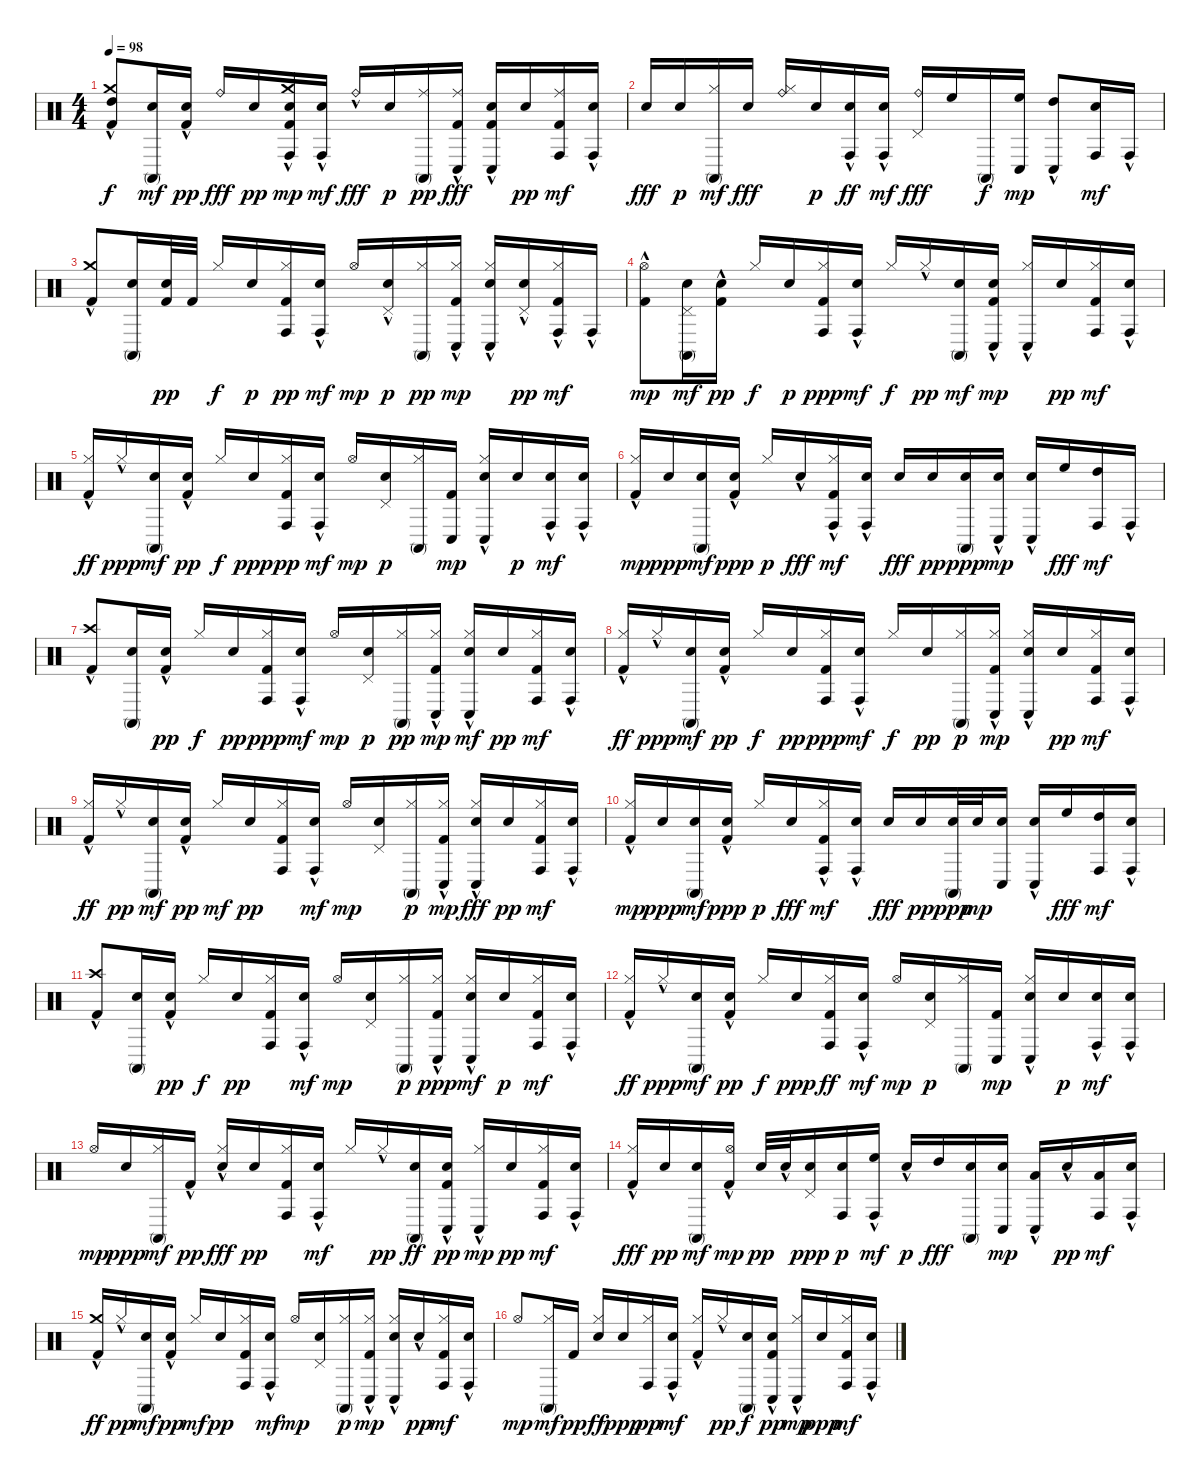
\track "" {instrument percussion}
\staff {score}
\articulation defaults
\ts (4 4)
\tempo 98
\clef neutral
\ks c
("Kick (hit) 2"{hac} "High Tom (hit)" "Crash medium (hit)"{hac}).8{dy f} ("Electric Snare (hit)" "Conga high (mute)").16{dy mf} ("Kick (hit) 2"{hac} "Snare (hit) 2").16{dy pp} "Ride (bell)".16{dy fff} "Snare (hit) 2".16{dy pp} ("Snare (hit) 2"{hac} "Kick (hit) 2" "Conga high (hit)" "Crash medium (hit)").16{dy mp} ("Electric Snare (hit)" "Conga high (hit)"{hac}).16{dy mf} "Ride (bell)"{hac}.16{dy fff} "Snare (hit) 2".16{dy p} ("Ride (middle)" "Conga high (mute)").16{dy pp} ("Conga low (hit)" "Kick (hit) 2" "Ride (middle)"{hac}).16{dy fff} ("Conga low (hit)"{hac} "Kick (hit) 2" "Electric Snare (hit)"{hac}).16 "Snare (hit) 2".16{dy pp} ("Kick (hit) 2" "Ride (middle)" "Conga high (hit)").16{dy mf} ("Snare (hit) 2" "Conga high (hit)"{hac}).16 |
"Snare (hit) 2".16{dy fff} "Snare (hit) 2".16{dy p} ("Hi-Hat (closed)" "Conga high (mute)").16{dy mf} "Electric Snare (hit)".16{dy fff} ("Hi-Hat (closed)" "Ride (bell)").16 "Snare (hit) 2".16{dy p} ("Snare (hit) 2"{hac} "Conga high (hit)").16{dy ff} ("Electric Snare (hit)"{hac} "Conga high (hit)"{hac}).16{dy mf} ("Pedal Hi-Hat (hit)" "Ride (bell)").16{dy fff} "High Floor Tom (hit)".16 "Conga high (mute)".16{dy f} ("High Floor Tom (hit)" "Conga low (hit)").16{dy mp} ("High Tom (hit)" "Conga low (hit)"{hac}).8 ("Electric Snare (hit)" "Conga high (hit)").16{dy mf} "Conga high (hit)"{hac}.16 |
("Kick (hit) 2"{hac} "Crash medium (hit)").8 ("Electric Snare (hit)" "Conga high (mute)").16 ("Kick (hit) 2" "Snare (hit) 2").32{dy pp} "Kick (hit) 2".32 "Hi-Hat (closed)".16{dy f} "Snare (hit) 2".16{dy p} ("Kick (hit) 2" "Hi-Hat (closed)" "Conga high (hit)").16{dy pp} ("Electric Snare (hit)" "Conga high (hit)"{hac}).16{dy mf} "Hi-Hat (open)".16{dy mp} ("Snare (hit) 2"{hac} "Pedal Hi-Hat (hit)").16{dy p} ("Hi-Hat (closed)" "Conga high (mute)").16{dy pp} ("Kick (hit) 2"{hac} "Hi-Hat (closed)" "Conga low (hit)").16{dy mp} ("Snare (hit) 2" "Hi-Hat (closed)" "Conga low (hit)"{hac}).16 ("Snare (hit) 2"{hac} "Pedal Hi-Hat (hit)").16{dy pp} ("Kick (hit) 2" "Hi-Hat (closed)"{hac} "Conga high (hit)").16{dy mf} "Conga high (hit)"{hac}.16 |
("Kick (hit) 2"{hac} "Hi-Hat (open)").8{dy mp} ("Electric Snare (hit)" "Pedal Hi-Hat (hit)" "Conga high (mute)").16{dy mf} ("Kick (hit) 2"{hac} "Snare (hit) 2").16{dy pp} "Hi-Hat (closed)".16{dy f} "Snare (hit) 2".16{dy p} ("Kick (hit) 2" "Hi-Hat (closed)" "Conga high (hit)").16{dy ppp} ("Snare (hit) 2" "Conga high (hit)"{hac}).16{dy mf} "Hi-Hat (closed)".16{dy f} "Hi-Hat (closed)"{hac}.16{dy pp} ("Electric Snare (hit)" "Conga high (mute)").16{dy mf} ("Kick (hit) 2"{hac} "Snare (hit) 2" "Conga low (hit)").16{dy mp} ("Hi-Hat (closed)" "Conga low (hit)"{hac}).16 "Snare (hit) 2".16{dy pp} ("Kick (hit) 2" "Hi-Hat (closed)" "Conga high (hit)").16{dy mf} ("Snare (hit) 2" "Conga high (hit)"{hac}).16 |
("Kick (hit) 2"{hac} "Hi-Hat (closed)").16{dy ff} "Hi-Hat (closed)"{hac}.16{dy ppp} ("Electric Snare (hit)" "Conga high (mute)").16{dy mf} ("Kick (hit) 2"{hac} "Snare (hit) 2").16{dy pp} "Hi-Hat (closed)".16{dy f} "Snare (hit) 2".16{dy ppp} ("Conga high (hit)" "Kick (hit) 2" "Hi-Hat (closed)").16{dy pp} ("Electric Snare (hit)" "Conga high (hit)"{hac}).16{dy mf} "Hi-Hat (open)".16{dy mp} ("Snare (hit) 2" "Pedal Hi-Hat (hit)").16{dy p} ("Hi-Hat (closed)" "Conga high (mute)").16 ("Kick (hit) 2" "Conga low (hit)").16{dy mp} ("Electric Snare (hit)"{hac} "Hi-Hat (closed)" "Conga low (hit)"{hac}).16 "Snare (hit) 2".16{dy p} ("Snare (hit) 2"{hac} "Conga high (hit)").16{dy mf} ("Electric Snare (hit)"{hac} "Conga high (hit)"{hac}).16 |
("Kick (hit) 2"{hac} "Hi-Hat (closed)").16{dy mp} "Snare (hit) 2".16{dy ppp} ("Snare (hit) 2" "Conga high (mute)").16{dy mf} ("Kick (hit) 2"{hac} "Snare (hit) 2").16{dy ppp} "Hi-Hat (closed)".16{dy p} "Electric Snare (hit)"{hac}.16{dy fff} ("Kick (hit) 2" "Hi-Hat (closed)"{hac} "Conga high (hit)").16{dy mf} ("Snare (hit) 2" "Conga high (hit)"{hac}).16 "Snare (hit) 2".16{dy fff} "Snare (hit) 2".16{dy pp} ("Snare (hit) 2" "Conga high (mute)").16{dy ppp} ("Electric Snare (hit)"{hac} "Conga low (hit)").16{dy mp} ("Snare (hit) 2"{hac} "Conga low (hit)"{hac}).16 "High Floor Tom (hit)".16{dy fff} ("High Tom (hit)" "Conga high (hit)").16{dy mf} "Conga high (hit)"{hac}.16 |
("Kick (hit) 2"{hac} "Crash high (hit)").8 ("Electric Snare (hit)" "Conga high (mute)").16 ("Kick (hit) 2"{hac} "Snare (hit) 2").16{dy pp} "Hi-Hat (closed)".16{dy f} "Snare (hit) 2".16{dy pp} ("Kick (hit) 2" "Hi-Hat (closed)" "Conga high (hit)").16{dy ppp} ("Electric Snare (hit)" "Conga high (hit)"{hac}).16{dy mf} "Hi-Hat (open)".16{dy mp} ("Snare (hit) 2" "Pedal Hi-Hat (hit)").16{dy p} ("Hi-Hat (closed)" "Conga high (mute)").16{dy pp} ("Kick (hit) 2"{hac} "Hi-Hat (closed)" "Conga low (hit)").16{dy mp} ("Conga low (hit)"{hac} "Electric Snare (hit)" "Hi-Hat (closed)").16{dy mf} "Snare (hit) 2".16{dy pp} ("Kick (hit) 2" "Hi-Hat (closed)" "Conga high (hit)").16{dy mf} ("Snare (hit) 2"{hac} "Conga high (hit)"{hac}).16 |
("Kick (hit) 2"{hac} "Hi-Hat (closed)").16{dy ff} "Hi-Hat (closed)"{hac}.16{dy ppp} ("Snare (hit) 2" "Conga high (mute)").16{dy mf} ("Kick (hit) 2"{hac} "Snare (hit) 2").16{dy pp} "Hi-Hat (closed)".16{dy f} "Snare (hit) 2".16{dy pp} ("Kick (hit) 2" "Hi-Hat (closed)" "Conga high (hit)").16{dy ppp} ("Snare (hit) 2" "Conga high (hit)"{hac}).16{dy mf} "Hi-Hat (closed)".16{dy f} "Snare (hit) 2".16{dy pp} ("Hi-Hat (closed)" "Conga high (mute)").16{dy p} ("Kick (hit) 2"{hac} "Hi-Hat (closed)" "Conga low (hit)").16{dy mp} ("Electric Snare (hit)"{hac} "Hi-Hat (closed)" "Conga low (hit)"{hac}).16 "Snare (hit) 2".16{dy pp} ("Kick (hit) 2" "Hi-Hat (closed)" "Conga high (hit)").16{dy mf} ("Snare (hit) 2" "Conga high (hit)"{hac}).16 |
("Kick (hit) 2"{hac} "Hi-Hat (closed)").16{dy ff} "Hi-Hat (closed)"{hac}.16{dy pp} ("Electric Snare (hit)" "Conga high (mute)").16{dy mf} ("Kick (hit) 2"{hac} "Snare (hit) 2").16{dy pp} "Hi-Hat (closed)".16{dy mf} "Snare (hit) 2".16{dy pp} ("Kick (hit) 2" "Hi-Hat (closed)" "Conga high (hit)").16 ("Electric Snare (hit)" "Conga high (hit)"{hac}).16{dy mf} "Hi-Hat (open)".16{dy mp} ("Snare (hit) 2" "Pedal Hi-Hat (hit)").16 ("Hi-Hat (closed)" "Conga high (mute)").16{dy p} ("Kick (hit) 2"{hac} "Hi-Hat (closed)" "Conga low (hit)").16{dy mp} ("Hi-Hat (closed)" "Conga low (hit)"{hac} "Electric Snare (hit)"{hac}).16{dy fff} "Snare (hit) 2".16{dy pp} ("Kick (hit) 2" "Hi-Hat (closed)" "Conga high (hit)").16{dy mf} ("Electric Snare (hit)"{hac} "Conga high (hit)"{hac}).16 |
("Kick (hit) 2"{hac} "Hi-Hat (closed)").16{dy mp} "Snare (hit) 2".16{dy ppp} ("Snare (hit) 2" "Conga high (mute)").16{dy mf} ("Kick (hit) 2"{hac} "Snare (hit) 2").16{dy ppp} "Hi-Hat (closed)".16{dy p} "Electric Snare (hit)".16{dy fff} ("Kick (hit) 2" "Hi-Hat (closed)"{hac} "Conga high (hit)").16{dy mf} ("Snare (hit) 2" "Conga high (hit)"{hac}).16 "Snare (hit) 2".16{dy fff} "Snare (hit) 2".16{dy pp} ("Snare (hit) 2" "Conga high (mute)").32{dy ppp} "Electric Snare (hit)".32{dy mp} ("Electric Snare (hit)" "Conga low (hit)").16 ("Snare (hit) 2"{hac} "Conga low (hit)"{hac}).16 "High Floor Tom (hit)".16{dy fff} ("High Tom (hit)" "Conga high (hit)").16{dy mf} ("Electric Snare (hit)"{hac} "Conga high (hit)"{hac}).16 |
("Kick (hit) 2"{hac} "Crash high (hit)").8 ("Electric Snare (hit)" "Conga high (mute)").16 ("Kick (hit) 2"{hac} "Snare (hit) 2").16{dy pp} "Hi-Hat (closed)".16{dy f} "Snare (hit) 2".16{dy pp} ("Kick (hit) 2" "Hi-Hat (closed)" "Conga high (hit)").16 ("Electric Snare (hit)" "Conga high (hit)"{hac}).16{dy mf} "Hi-Hat (open)".16{dy mp} ("Snare (hit) 2" "Pedal Hi-Hat (hit)").16 ("Hi-Hat (closed)" "Conga high (mute)").16{dy p} ("Conga low (hit)" "Kick (hit) 2"{hac} "Hi-Hat (closed)").16{dy ppp} ("Conga low (hit)"{hac} "Electric Snare (hit)"{hac} "Hi-Hat (closed)").16{dy mf} "Snare (hit) 2".16{dy p} ("Kick (hit) 2" "Hi-Hat (closed)" "Conga high (hit)").16{dy mf} ("Snare (hit) 2" "Conga high (hit)"{hac}).16 |
("Kick (hit) 2"{hac} "Hi-Hat (closed)").16{dy ff} "Hi-Hat (closed)"{hac}.16{dy ppp} ("Electric Snare (hit)" "Conga high (mute)").16{dy mf} ("Kick (hit) 2"{hac} "Snare (hit) 2").16{dy pp} "Hi-Hat (closed)".16{dy f} "Snare (hit) 2".16{dy ppp} ("Hi-Hat (closed)" "Conga high (hit)" "Kick (hit) 2").16{dy ff} ("Electric Snare (hit)" "Conga high (hit)"{hac}).16{dy mf} "Hi-Hat (open)".16{dy mp} ("Snare (hit) 2" "Pedal Hi-Hat (hit)").16{dy p} ("Hi-Hat (closed)" "Conga high (mute)").16 ("Kick (hit) 2" "Conga low (hit)").16{dy mp} ("Electric Snare (hit)"{hac} "Hi-Hat (closed)"{hac} "Conga low (hit)"{hac}).16 "Snare (hit) 2".16{dy p} ("Snare (hit) 2"{hac} "Conga high (hit)").16{dy mf} ("Electric Snare (hit)" "Conga high (hit)"{hac}).16 |
"Hi-Hat (open)".16{dy mp} "Snare (hit) 2".16{dy ppp} ("Hi-Hat (closed)" "Conga high (mute)").16{dy mf} "Kick (hit) 2"{hac}.16{dy pp} ("Electric Snare (hit)"{hac} "Hi-Hat (closed)").16{dy fff} "Snare (hit) 2".16{dy pp} ("Conga high (hit)" "Kick (hit) 2" "Hi-Hat (closed)").16 ("Snare (hit) 2" "Conga high (hit)"{hac}).16{dy mf} "Hi-Hat (closed)".16 "Hi-Hat (closed)"{hac}.16{dy pp} ("Electric Snare (hit)" "Conga high (mute)").16{dy ff} ("Conga low (hit)" "Kick (hit) 2"{hac} "Snare (hit) 2").16{dy pp} ("Hi-Hat (closed)" "Conga low (hit)"{hac}).16{dy mp} "Snare (hit) 2".16{dy pp} ("Kick (hit) 2" "Hi-Hat (closed)" "Conga high (hit)").16{dy mf} ("Electric Snare (hit)"{hac} "Conga high (hit)"{hac}).16 |
("Kick (hit) 2"{hac} "Hi-Hat (closed)").16{dy fff} "Snare (hit) 2".16{dy pp} ("Snare (hit) 2" "Conga high (mute)").16{dy mf} ("Kick (hit) 2"{hac} "Hi-Hat (open)").16{dy mp} "Snare (hit) 2".32{dy pp} "Snare (hit) 2"{hac}.32 ("Electric Snare (hit)" "Pedal Hi-Hat (hit)").16{dy ppp} ("Snare (hit) 2" "Conga high (hit)").16{dy p} ("High Floor Tom (hit)" "Conga high (hit)"{hac}).16{dy mf} "Snare (hit) 2"{hac}.16{dy p} "High Tom (hit)".16{dy fff} ("Electric Snare (hit)" "Conga high (mute)").16 ("Snare (hit) 2" "Conga low (hit)").16{dy mp} ("Low Tom (hit)" "Conga low (hit)"{hac}).16 "Snare (hit) 2"{hac}.16{dy pp} ("Low Floor Tom (hit)" "Conga high (hit)").16{dy mf} ("Electric Snare (hit)"{hac} "Conga high (hit)"{hac}).16 |
("Kick (hit) 2"{hac} "Crash medium (hit)").16{dy ff} "Hi-Hat (closed)"{hac}.16{dy pp} ("Electric Snare (hit)" "Conga high (mute)").16{dy mf} ("Kick (hit) 2"{hac} "Snare (hit) 2").16{dy pp} "Hi-Hat (closed)".16{dy mf} "Snare (hit) 2".16{dy pp} ("Kick (hit) 2" "Hi-Hat (closed)" "Conga high (hit)").16 ("Electric Snare (hit)" "Conga high (hit)"{hac}).16{dy mf} "Hi-Hat (open)".16{dy mp} ("Snare (hit) 2" "Pedal Hi-Hat (hit)").16 ("Hi-Hat (closed)" "Conga high (mute)").16{dy p} ("Kick (hit) 2"{hac} "Hi-Hat (closed)" "Conga low (hit)").16{dy mp} ("Electric Snare (hit)"{hac} "Hi-Hat (closed)" "Conga low (hit)"{hac}).16 "Snare (hit) 2"{hac}.16{dy pp} ("Kick (hit) 2" "Hi-Hat (closed)" "Conga high (hit)").16{dy mf} ("Electric Snare (hit)" "Conga high (hit)"{hac}).16 |
"Hi-Hat (open)".8{dy mp} ("Hi-Hat (closed)" "Conga high (mute)").16{dy mf} "Kick (hit) 2".16{dy pp} ("Snare (hit) 2" "Hi-Hat (closed)").16{dy ff} "Snare (hit) 2".16{dy ppp} ("Hi-Hat (closed)" "Conga high (hit)").16{dy pp} ("Snare (hit) 2" "Conga high (hit)"{hac}).16{dy mf} ("Kick (hit) 2"{hac} "Hi-Hat (closed)").16 "Hi-Hat (closed)"{hac}.16{dy pp} ("Electric Snare (hit)" "Conga high (mute)").16{dy f} ("Snare (hit) 2" "Conga low (hit)" "Kick (hit) 2"{hac}).16{dy pp} ("Hi-Hat (closed)" "Conga low (hit)"{hac}).16{dy mp} "Snare (hit) 2".16{dy ppp} ("Kick (hit) 2" "Hi-Hat (closed)" "Conga high (hit)").16{dy mf} ("Snare (hit) 2" "Conga high (hit)"{hac}).16
